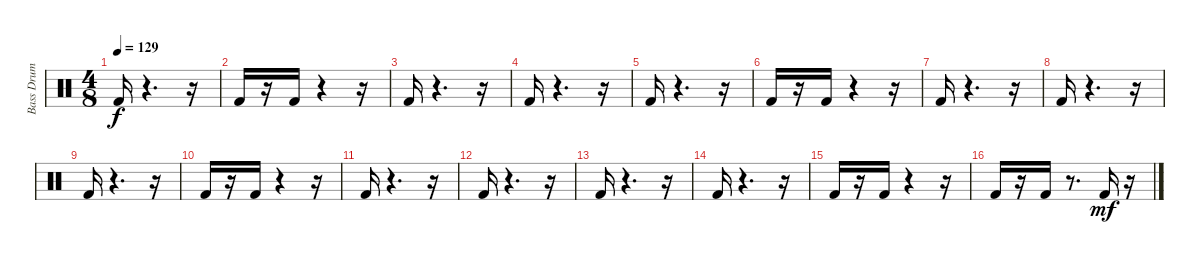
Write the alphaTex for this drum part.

\track ("Bass Drum" "Bass Drum") {instrument percussion}
\staff {score}
\articulation defaults
\ts (4 8)
\tempo 129
\clef neutral
\ks c "Kick (hit) 2".16{dy f}
r.4{d} r.16 |
"Kick (hit) 2".16 r.16 "Kick (hit) 2".16 r.4 r.16 |
"Kick (hit) 2".16 r.4{d} r.16 |
"Kick (hit) 2".16 r.4{d} r.16 |
"Kick (hit) 2".16 r.4{d} r.16 |
"Kick (hit) 2".16 r.16 "Kick (hit) 2".16 r.4 r.16 |
"Kick (hit) 2".16 r.4{d} r.16 |
"Kick (hit) 2".16 r.4{d} r.16 |
"Kick (hit) 2".16 r.4{d} r.16 |
"Kick (hit) 2".16 r.16 "Kick (hit) 2".16 r.4 r.16 |
"Kick (hit) 2".16 r.4{d} r.16 |
"Kick (hit) 2".16 r.4{d} r.16 |
"Kick (hit) 2".16 r.4{d} r.16 |
"Kick (hit) 2".16 r.4{d} r.16 |
"Kick (hit) 2".16 r.16 "Kick (hit) 2".16 r.4 r.16 |
"Kick (hit) 2".16 r.16 "Kick (hit) 2".16 r.8{d} "Kick (hit) 2".16{dy mf} r.16
